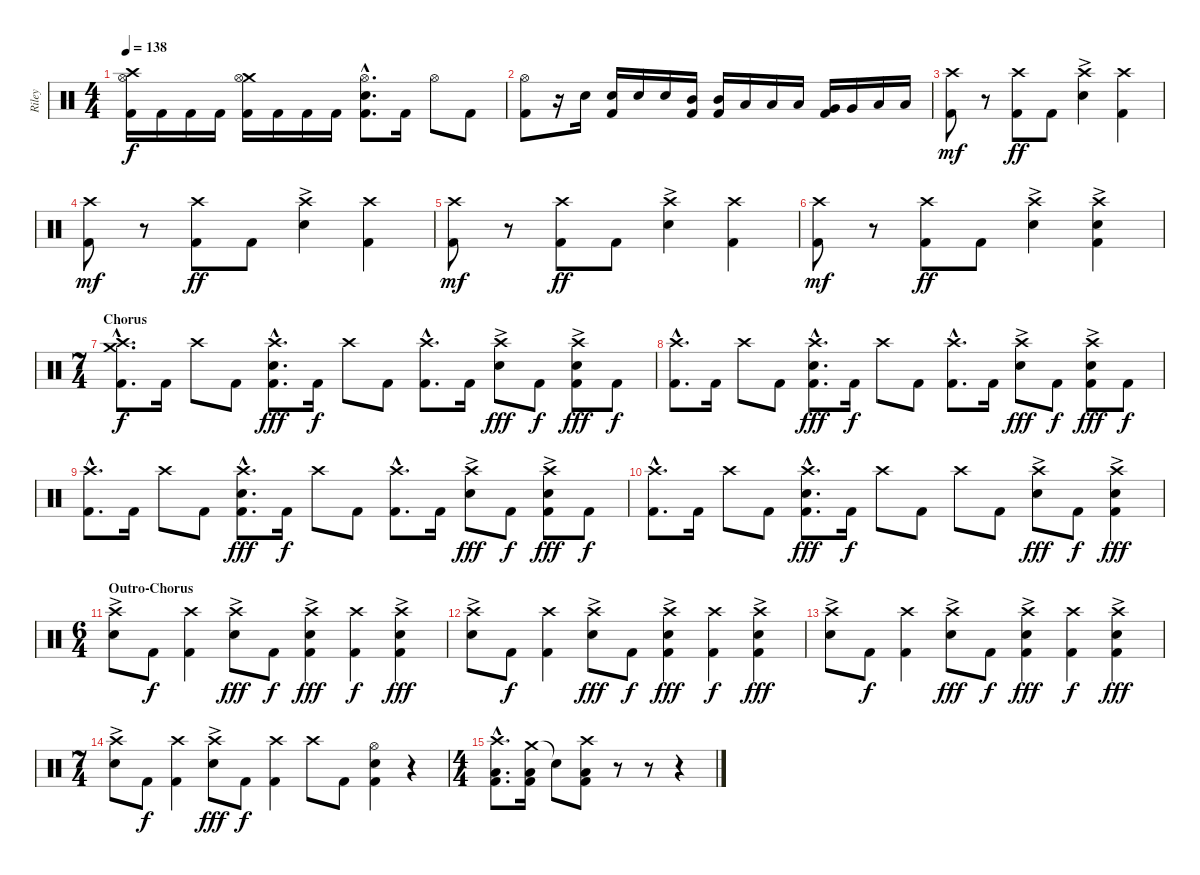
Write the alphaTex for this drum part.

\track ("Riley" "Riley") {instrument percussion}
\staff {score}
\articulation defaults
\ts (4 4)
\tempo 138
\clef neutral
\ks c
("Crash high (hit)" "Hi-Hat (open)" "Kick (hit) 2").16{dy f} "Kick (hit) 2".16 "Kick (hit) 2".16 "Kick (hit) 2".16 ("Crash medium (hit)" "Hi-Hat (open)" "Kick (hit) 2").16 "Kick (hit) 2".16 "Kick (hit) 2".16 "Kick (hit) 2".16 ("Hi-Hat (open)"{hac} "Electric Snare (hit)"{hac} "Kick (hit) 2"{hac}).8{d} "Kick (hit) 2".16 "Hi-Hat (open)".8 "Kick (hit) 2".8 |
("Hi-Hat (open)" "Kick (hit) 2").8 r.16 "Electric Snare (hit)".16 ("Electric Snare (hit)" "Kick (hit) 2").16 "Electric Snare (hit)".16 "Electric Snare (hit)".16 ("Mid Tom (hit)" "Kick (hit) 2").16 ("Mid Tom (hit)" "Kick (hit) 2").16 "Low Tom (hit)".16 "Low Tom (hit)".16 "Low Tom (hit)".16 ("Very Low Tom (hit)" "Kick (hit) 2").16 "Very Low Tom (hit)".16 "Low Floor Tom (hit)".16 "Low Floor Tom (hit)".16 |
("Crash high (hit)" "Kick (hit) 2").8{dy mf} r.8 ("Crash high (hit)" "Kick (hit) 2").8{dy ff} "Kick (hit) 2".8 ("Crash high (hit)" "Electric Snare (hit)"{ac}).4 ("Crash high (hit)" "Kick (hit) 2").4 |
("Crash high (hit)" "Kick (hit) 2").8{dy mf} r.8 ("Crash high (hit)" "Kick (hit) 2").8{dy ff} "Kick (hit) 2".8 ("Crash high (hit)" "Electric Snare (hit)"{ac}).4 ("Crash high (hit)" "Kick (hit) 2").4 |
("Crash high (hit)" "Kick (hit) 2").8{dy mf} r.8 ("Crash high (hit)" "Kick (hit) 2").8{dy ff} "Kick (hit) 2".8 ("Crash high (hit)" "Electric Snare (hit)"{ac}).4 ("Crash high (hit)" "Kick (hit) 2").4 |
("Crash high (hit)" "Kick (hit) 2").8{dy mf} r.8 ("Crash high (hit)" "Kick (hit) 2").8{dy ff} "Kick (hit) 2".8 ("Crash high (hit)" "Electric Snare (hit)"{ac}).4 ("Crash high (hit)" "Electric Snare (hit)"{ac} "Kick (hit) 2").4 |
\ts (7 4)
\section ("" "Chorus")
("Crash medium (hit)"{hac} "Crash high (hit)"{hac} "Kick (hit) 2"{hac}).8{d dy f} "Kick (hit) 2".16 "Crash high (hit)".8 "Kick (hit) 2".8 ("Crash high (hit)"{hac} "Electric Snare (hit)"{hac} "Kick (hit) 2"{hac}).8{d dy fff} "Kick (hit) 2".16{dy f} "Crash high (hit)".8 "Kick (hit) 2".8 ("Crash high (hit)"{hac} "Kick (hit) 2"{hac}).8{d} "Kick (hit) 2".16 ("Crash high (hit)" "Electric Snare (hit)"{ac}).8{dy fff} "Kick (hit) 2".8{dy f} ("Crash high (hit)" "Electric Snare (hit)"{ac} "Kick (hit) 2").8{dy fff} "Kick (hit) 2".8{dy f} |
("Crash high (hit)"{hac} "Kick (hit) 2"{hac}).8{d} "Kick (hit) 2".16 "Crash high (hit)".8 "Kick (hit) 2".8 ("Crash high (hit)"{hac} "Electric Snare (hit)"{hac} "Kick (hit) 2"{hac}).8{d dy fff} "Kick (hit) 2".16{dy f} "Crash high (hit)".8 "Kick (hit) 2".8 ("Crash high (hit)"{hac} "Kick (hit) 2"{hac}).8{d} "Kick (hit) 2".16 ("Crash high (hit)" "Electric Snare (hit)"{ac}).8{dy fff} "Kick (hit) 2".8{dy f} ("Crash high (hit)" "Electric Snare (hit)"{ac} "Kick (hit) 2").8{dy fff} "Kick (hit) 2".8{dy f} |
("Crash high (hit)"{hac} "Kick (hit) 2"{hac}).8{d} "Kick (hit) 2".16 "Crash high (hit)".8 "Kick (hit) 2".8 ("Crash high (hit)"{hac} "Electric Snare (hit)"{hac} "Kick (hit) 2"{hac}).8{d dy fff} "Kick (hit) 2".16{dy f} "Crash high (hit)".8 "Kick (hit) 2".8 ("Crash high (hit)"{hac} "Kick (hit) 2"{hac}).8{d} "Kick (hit) 2".16 ("Crash high (hit)" "Electric Snare (hit)"{ac}).8{dy fff} "Kick (hit) 2".8{dy f} ("Crash high (hit)" "Electric Snare (hit)"{ac} "Kick (hit) 2").8{dy fff} "Kick (hit) 2".8{dy f} |
("Crash high (hit)"{hac} "Kick (hit) 2"{hac}).8{d} "Kick (hit) 2".16 "Crash high (hit)".8 "Kick (hit) 2".8 ("Crash high (hit)"{hac} "Electric Snare (hit)"{hac} "Kick (hit) 2"{hac}).8{d dy fff} "Kick (hit) 2".16{dy f} "Crash high (hit)".8 "Kick (hit) 2".8 "Crash high (hit)".8 "Kick (hit) 2".8 ("Crash high (hit)" "Electric Snare (hit)"{ac}).8{dy fff} "Kick (hit) 2".8{dy f} ("Crash high (hit)" "Electric Snare (hit)"{ac} "Kick (hit) 2").4{dy fff} |
\ts (6 4)
\section ("" "Outro-Chorus")
("Crash high (hit)" "Electric Snare (hit)"{ac}).8 "Kick (hit) 2".8{dy f} ("Crash high (hit)" "Kick (hit) 2").4 ("Crash high (hit)" "Electric Snare (hit)"{ac}).8{dy fff} "Kick (hit) 2".8{dy f} ("Crash high (hit)" "Electric Snare (hit)"{ac} "Kick (hit) 2").4{dy fff} ("Crash high (hit)" "Kick (hit) 2").4{dy f} ("Crash high (hit)" "Electric Snare (hit)"{ac} "Kick (hit) 2").4{dy fff} |
("Crash high (hit)" "Electric Snare (hit)"{ac}).8 "Kick (hit) 2".8{dy f} ("Crash high (hit)" "Kick (hit) 2").4 ("Crash high (hit)" "Electric Snare (hit)"{ac}).8{dy fff} "Kick (hit) 2".8{dy f} ("Crash high (hit)" "Electric Snare (hit)"{ac} "Kick (hit) 2").4{dy fff} ("Crash high (hit)" "Kick (hit) 2").4{dy f} ("Crash high (hit)" "Electric Snare (hit)"{ac} "Kick (hit) 2").4{dy fff} |
("Crash high (hit)" "Electric Snare (hit)"{ac}).8 "Kick (hit) 2".8{dy f} ("Crash high (hit)" "Kick (hit) 2").4 ("Crash high (hit)" "Electric Snare (hit)"{ac}).8{dy fff} "Kick (hit) 2".8{dy f} ("Crash high (hit)" "Electric Snare (hit)"{ac} "Kick (hit) 2").4{dy fff} ("Crash high (hit)" "Kick (hit) 2").4{dy f} ("Crash high (hit)" "Electric Snare (hit)"{ac} "Kick (hit) 2").4{dy fff} |
\ts (7 4)
("Crash high (hit)" "Electric Snare (hit)"{ac}).8 "Kick (hit) 2".8{dy f} ("Crash high (hit)" "Kick (hit) 2").4 ("Crash high (hit)" "Electric Snare (hit)"{ac}).8{dy fff} "Kick (hit) 2".8{dy f} ("Crash high (hit)" "Kick (hit) 2").4 "Crash high (hit)".8 "Kick (hit) 2".8 ("Hi-Hat (open)" "Electric Snare (hit)" "Kick (hit) 2").4 r.4 |
\ts (4 4)
("Crash high (hit)"{hac} "Low Tom (hit)"{hac} "Kick (hit) 2"{hac}).8{d} ("Crash medium (hit)" "Low Tom (hit)" "Kick (hit) 2").16 "Snare (hit)"{t}.8 ("Crash high (hit)" "Low Tom (hit)" "Kick (hit) 2").8 r.8 r.8{volume 0} r.4
